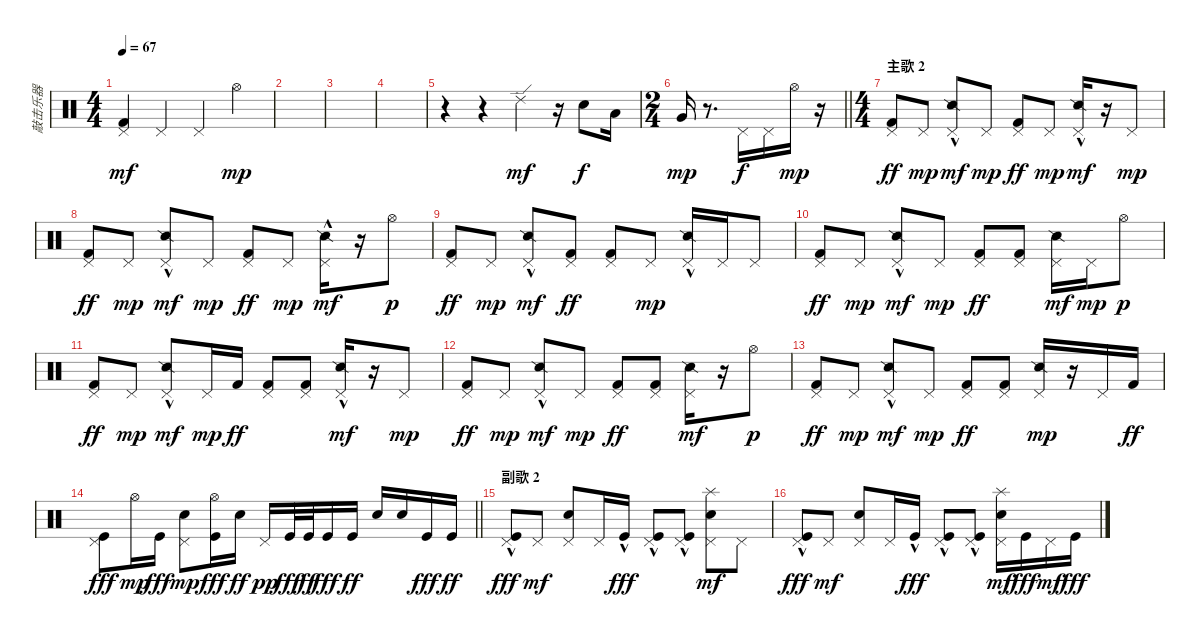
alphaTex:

\track ("敲击乐器" "敲击乐器") {instrument percussion}
\staff {score}
\articulation defaults
\ts (4 4)
\tempo 67
\clef neutral
\ks c
("Kick (hit) 2" "Pedal Hi-Hat (hit)").4{dy mf} "Pedal Hi-Hat (hit)".4 "Pedal Hi-Hat (hit)".4 "Hi-Hat (open)".4{dy mp} |
|
|
|
r.4 r.4 "Ride (edge) 2".4{dy mf} r.16 "Electric Snare (hit)".8{dy f} "Low Tom (hit)".16 |
\ts (2 4)
\barLineRight lightlight "Very Low Tom (hit)".16{dy mp}
r.8{d} "Pedal Hi-Hat (hit)".16{dy f} "Pedal Hi-Hat (hit)".16 "Hi-Hat (open)".16{dy mp} r.16 |
\ts (4 4)
\section ("" "主歌 2")
("Pedal Hi-Hat (hit)" "Kick (hit) 2").8{dy ff} "Pedal Hi-Hat (hit)".8{dy mp} ("Snare (side stick) 2"{hac} "Pedal Hi-Hat (hit)").8{dy mf} "Pedal Hi-Hat (hit)".8{dy mp} ("Pedal Hi-Hat (hit)" "Kick (hit) 2").8{dy ff} "Pedal Hi-Hat (hit)".8{dy mp} ("Snare (side stick) 2"{hac} "Pedal Hi-Hat (hit)").16{dy mf} r.16 "Pedal Hi-Hat (hit)".8{dy mp} |
("Pedal Hi-Hat (hit)" "Kick (hit) 2").8{dy ff} "Pedal Hi-Hat (hit)".8{dy mp} ("Snare (side stick) 2"{hac} "Pedal Hi-Hat (hit)").8{dy mf} "Pedal Hi-Hat (hit)".8{dy mp} ("Pedal Hi-Hat (hit)" "Kick (hit) 2").8{dy ff} "Pedal Hi-Hat (hit)".8{dy mp} ("Snare (side stick) 2"{hac} "Pedal Hi-Hat (hit)").16{dy mf} r.16 "Hi-Hat (open)".8{dy p} |
("Pedal Hi-Hat (hit)" "Kick (hit) 2").8{dy ff} "Pedal Hi-Hat (hit)".8{dy mp} ("Snare (side stick) 2"{hac} "Pedal Hi-Hat (hit)").8{dy mf} ("Pedal Hi-Hat (hit)" "Kick (hit) 2").8{dy ff} ("Pedal Hi-Hat (hit)" "Kick (hit) 2").8 "Pedal Hi-Hat (hit)".8{dy mp} ("Snare (side stick) 2"{hac} "Pedal Hi-Hat (hit)").16 "Pedal Hi-Hat (hit)".16 "Pedal Hi-Hat (hit)".8 |
("Pedal Hi-Hat (hit)" "Kick (hit) 2").8{dy ff} "Pedal Hi-Hat (hit)".8{dy mp} ("Snare (side stick) 2"{hac} "Pedal Hi-Hat (hit)").8{dy mf} "Pedal Hi-Hat (hit)".8{dy mp} ("Pedal Hi-Hat (hit)" "Kick (hit) 2").8{dy ff} ("Pedal Hi-Hat (hit)" "Kick (hit) 2").8 ("Snare (side stick) 2" "Pedal Hi-Hat (hit)").16{dy mf} "Pedal Hi-Hat (hit)".16{dy mp} "Hi-Hat (open)".8{dy p} |
("Pedal Hi-Hat (hit)" "Kick (hit) 2").8{dy ff} "Pedal Hi-Hat (hit)".8{dy mp} ("Snare (side stick) 2"{hac} "Pedal Hi-Hat (hit)").8{dy mf} "Pedal Hi-Hat (hit)".16{dy mp} "Kick (hit) 2".16{dy ff} ("Pedal Hi-Hat (hit)" "Kick (hit) 2").8 ("Pedal Hi-Hat (hit)" "Kick (hit) 2").8 ("Snare (side stick) 2"{hac} "Pedal Hi-Hat (hit)").16{dy mf} r.16 "Pedal Hi-Hat (hit)".8{dy mp} |
("Pedal Hi-Hat (hit)" "Kick (hit) 2").8{dy ff} "Pedal Hi-Hat (hit)".8{dy mp} ("Snare (side stick) 2"{hac} "Pedal Hi-Hat (hit)").8{dy mf} "Pedal Hi-Hat (hit)".8{dy mp} ("Pedal Hi-Hat (hit)" "Kick (hit) 2").8{dy ff} ("Pedal Hi-Hat (hit)" "Kick (hit) 2").8 ("Snare (side stick) 2" "Pedal Hi-Hat (hit)").16{dy mf} r.16 "Hi-Hat (open)".8{dy p} |
("Pedal Hi-Hat (hit)" "Kick (hit) 2").8{dy ff} "Pedal Hi-Hat (hit)".8{dy mp} ("Snare (side stick) 2"{hac} "Pedal Hi-Hat (hit)").8{dy mf} "Pedal Hi-Hat (hit)".8{dy mp} ("Pedal Hi-Hat (hit)" "Kick (hit) 2").8{dy ff} ("Pedal Hi-Hat (hit)" "Kick (hit) 2").8 ("Snare (side stick) 2" "Pedal Hi-Hat (hit)").16{dy mp} r.16 "Pedal Hi-Hat (hit)".16 "Kick (hit) 2".16{dy ff} |
\barLineRight lightlight
("Pedal Hi-Hat (hit)" "Kick (hit)").8{dy fff} "Hi-Hat (open)".16{dy mp} "Kick (hit)".16{dy fff} ("Electric Snare (hit)" "Pedal Hi-Hat (hit)").8{dy mp} ("Hi-Hat (open)" "Kick (hit)").16{dy fff} "Electric Snare (hit)".16{dy ff} "Pedal Hi-Hat (hit)".16{dy pp} "Kick (hit)".32{dy fff} "Kick (hit)".32{dy ff} "Kick (hit)".16{dy fff} "Kick (hit)".16{dy ff} "Electric Snare (hit)".16 "Electric Snare (hit)".16 "Kick (hit)".16{dy fff} "Kick (hit)".16{dy ff} |
\section ("" "副歌 2")
("Pedal Hi-Hat (hit)" "Kick (hit)"{hac}).8{dy fff} "Pedal Hi-Hat (hit)".8{dy mf} ("Electric Snare (hit)" "Pedal Hi-Hat (hit)").8 "Pedal Hi-Hat (hit)".16 "Kick (hit)"{hac}.16{dy fff} ("Pedal Hi-Hat (hit)" "Kick (hit)"{hac}).8 ("Pedal Hi-Hat (hit)" "Kick (hit)"{hac}).8 ("Splash (hit)" "Electric Snare (hit)" "Pedal Hi-Hat (hit)").8{dy mf} "Pedal Hi-Hat (hit)".8 |
("Pedal Hi-Hat (hit)" "Kick (hit)"{hac}).8{dy fff} "Pedal Hi-Hat (hit)".8{dy mf} ("Electric Snare (hit)" "Pedal Hi-Hat (hit)").8 "Pedal Hi-Hat (hit)".16 "Kick (hit)"{hac}.16{dy fff} ("Pedal Hi-Hat (hit)" "Kick (hit)"{hac}).8 ("Pedal Hi-Hat (hit)" "Kick (hit)"{hac}).8 ("Splash (hit)" "Electric Snare (hit)" "Pedal Hi-Hat (hit)").16{dy mf} "Kick (hit)".16{dy fff} "Pedal Hi-Hat (hit)".16{dy mf} "Kick (hit)".16{dy fff}
